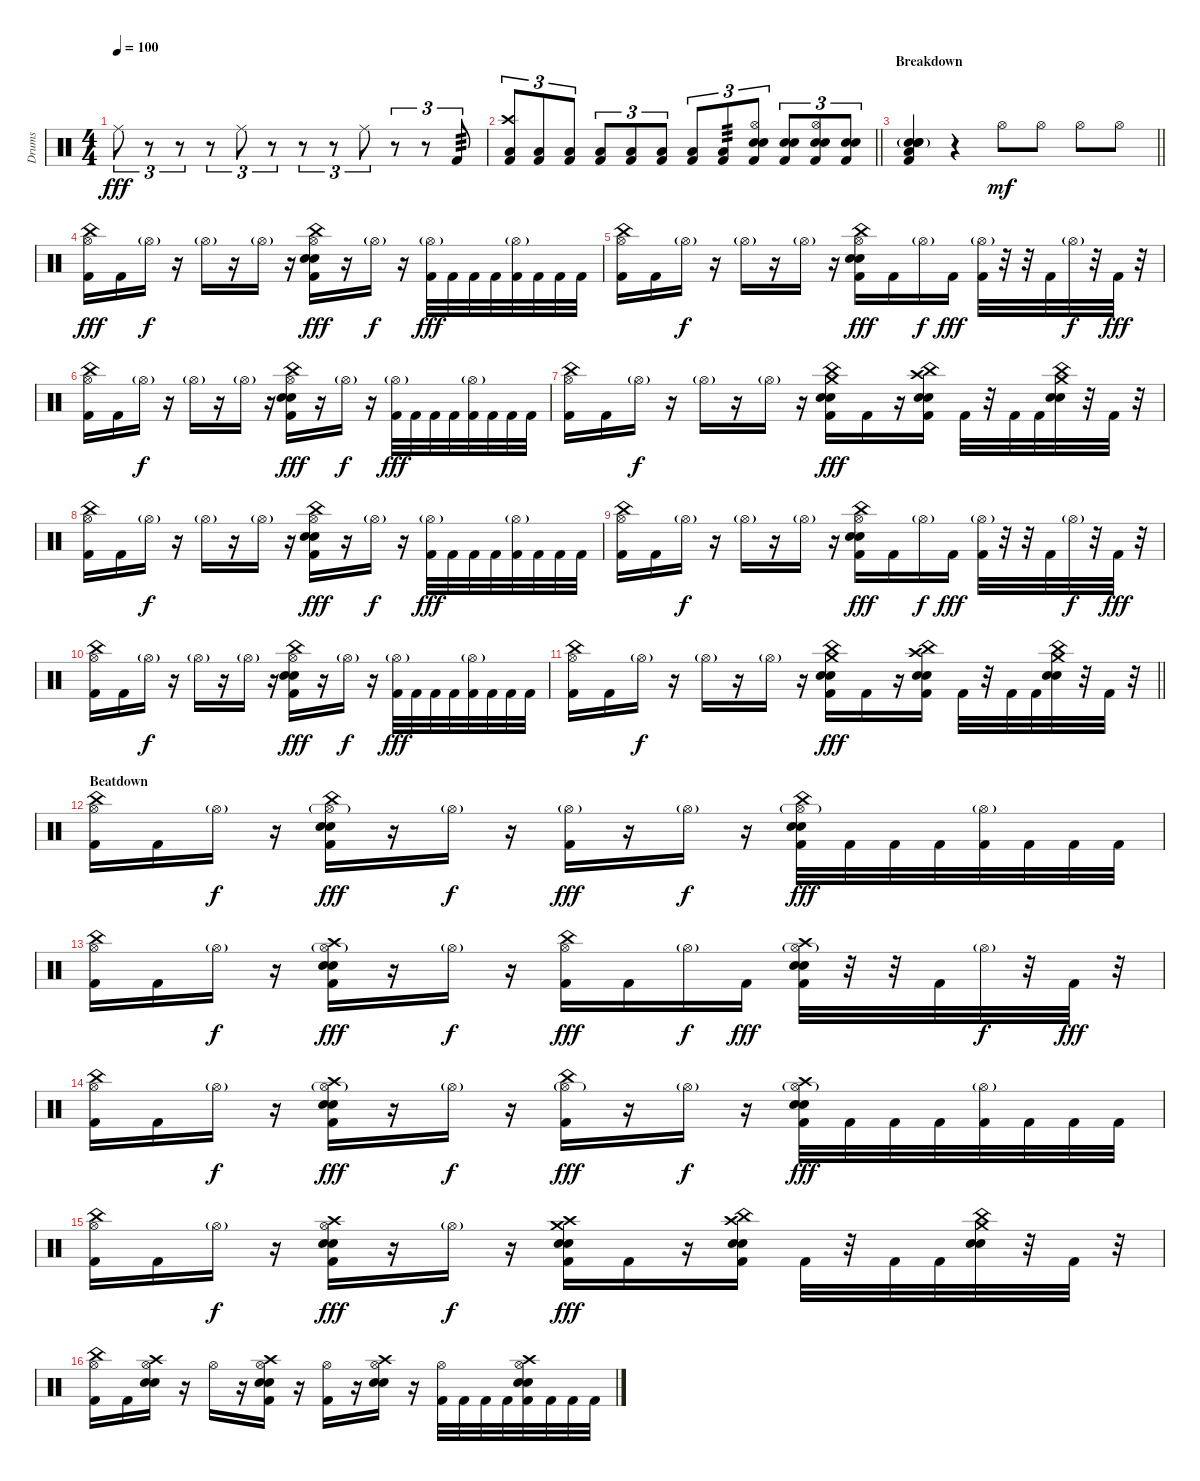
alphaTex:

\track ("Drums" "Drums") {instrument percussion}
\staff {score}
\articulation defaults
\ts (4 4)
\tempo 100
\clef neutral
\ks c "Ride (middle)".8{tu (3 2) dy fff}
r.8{tu (3 2)} r.8{tu (3 2)} r.8{tu (3 2)} "Ride (middle)".8{tu (3 2)} r.8{tu (3 2)} r.8{tu (3 2)} r.8{tu (3 2)} "Ride (middle)".8{tu (3 2)} r.8{tu (3 2)} r.8{tu (3 2)} "Kick (hit) 2".8{tu (3 2) tp 3} |
\barLineRight lightlight
("Crash high (hit)" "Low Floor Tom (hit)" "Kick (hit) 2").8{tu (3 2)} ("Low Floor Tom (hit)" "Kick (hit) 2").8{tu (3 2)} ("Low Floor Tom (hit)" "Kick (hit) 2").8{tu (3 2)} ("Low Floor Tom (hit)" "Kick (hit) 2").8{tu (3 2)} ("Low Floor Tom (hit)" "Kick (hit) 2").8{tu (3 2)} ("Low Floor Tom (hit)" "Kick (hit) 2").8{tu (3 2)} ("Low Floor Tom (hit)" "Kick (hit) 2").8{tu (3 2)} ("Low Floor Tom (hit)" "Kick (hit) 2").8{tu (3 2) tp 3} ("Hi-Hat (open)" "Electric Snare (hit)" "Snare (hit) 2" "Kick (hit) 2").8{tu (3 2)} ("Electric Snare (hit)" "Snare (hit) 2" "Kick (hit) 2").8{tu (3 2)} ("Hi-Hat (open)" "Electric Snare (hit)" "Snare (hit) 2" "Kick (hit) 2").8{tu (3 2)} ("Electric Snare (hit)" "Snare (hit) 2" "Kick (hit) 2").8{tu (3 2)} |
\section ("" "Breakdown")
\barLineRight lightlight
("Snare (hit) 2" "Electric Snare (hit)" "Hand Clap (hit)"{g} "Low Floor Tom (hit)" "Kick (hit) 2").4 r.4 "Hi-Hat (open)".8{dy mf} "Hi-Hat (open)".8 "Hi-Hat (open)".8 "Hi-Hat (open)".8 |
("Hi-Hat (open)" "China (hit)" "Kick (hit) 2").16{dy fff} "Kick (hit) 2".16 "Hi-Hat (open)"{g}.16{dy f} r.16 "Hi-Hat (open)"{g}.16 r.16 "Hi-Hat (open)"{g}.16 r.16 ("Hi-Hat (open)" "China (hit)" "Snare (hit) 2" "Electric Snare (hit)" "Kick (hit) 2").16{dy fff} r.16 "Hi-Hat (open)"{g}.16{dy f} r.16 ("Hi-Hat (open)"{g} "Kick (hit) 2").32{dy fff} "Kick (hit) 2".32 "Kick (hit) 2".32 "Kick (hit) 2".32 ("Hi-Hat (open)"{g} "Kick (hit) 2").32 "Kick (hit) 2".32 "Kick (hit) 2".32 "Kick (hit) 2".32 |
("Hi-Hat (open)" "China (hit)" "Kick (hit) 2").16 "Kick (hit) 2".16 "Hi-Hat (open)"{g}.16{dy f} r.16 "Hi-Hat (open)"{g}.16 r.16 "Hi-Hat (open)"{g}.16 r.16 ("Hi-Hat (open)" "China (hit)" "Snare (hit) 2" "Electric Snare (hit)" "Kick (hit) 2").16{dy fff} "Kick (hit) 2".16 "Hi-Hat (open)"{g}.16{dy f} "Kick (hit) 2".16{dy fff} ("Hi-Hat (open)"{g} "Kick (hit) 2").32 r.32 r.32 "Kick (hit) 2".32 "Hi-Hat (open)"{g}.32{dy f} r.32 "Kick (hit) 2".32{dy fff} r.32 |
("Hi-Hat (open)" "China (hit)" "Kick (hit) 2").16 "Kick (hit) 2".16 "Hi-Hat (open)"{g}.16{dy f} r.16 "Hi-Hat (open)"{g}.16 r.16 "Hi-Hat (open)"{g}.16 r.16 ("Hi-Hat (open)" "China (hit)" "Snare (hit) 2" "Electric Snare (hit)" "Kick (hit) 2").16{dy fff} r.16 "Hi-Hat (open)"{g}.16{dy f} r.16 ("Hi-Hat (open)"{g} "Kick (hit) 2").32{dy fff} "Kick (hit) 2".32 "Kick (hit) 2".32 "Kick (hit) 2".32 ("Hi-Hat (open)"{g} "Kick (hit) 2").32 "Kick (hit) 2".32 "Kick (hit) 2".32 "Kick (hit) 2".32 |
("Hi-Hat (open)" "China (hit)" "Kick (hit) 2").16 "Kick (hit) 2".16 "Hi-Hat (open)"{g}.16{dy f} r.16 "Hi-Hat (open)"{g}.16 r.16 "Hi-Hat (open)"{g}.16 r.16 ("Crash medium (hit)" "China (hit)" "Snare (hit) 2" "Electric Snare (hit)" "Kick (hit) 2").16{dy fff} "Kick (hit) 2".16 r.16 ("Crash high (hit)" "China (hit)" "Snare (hit) 2" "Electric Snare (hit)" "Kick (hit) 2").16 "Kick (hit) 2".32 r.32 "Kick (hit) 2".32 "Kick (hit) 2".32 ("Crash medium (hit)" "China (hit)" "Snare (hit) 2" "Electric Snare (hit)").32 r.32 "Kick (hit) 2".32 r.32 |
("Hi-Hat (open)" "China (hit)" "Kick (hit) 2").16 "Kick (hit) 2".16 "Hi-Hat (open)"{g}.16{dy f} r.16 "Hi-Hat (open)"{g}.16 r.16 "Hi-Hat (open)"{g}.16 r.16 ("Hi-Hat (open)" "China (hit)" "Snare (hit) 2" "Electric Snare (hit)" "Kick (hit) 2").16{dy fff} r.16 "Hi-Hat (open)"{g}.16{dy f} r.16 ("Hi-Hat (open)"{g} "Kick (hit) 2").32{dy fff} "Kick (hit) 2".32 "Kick (hit) 2".32 "Kick (hit) 2".32 ("Hi-Hat (open)"{g} "Kick (hit) 2").32 "Kick (hit) 2".32 "Kick (hit) 2".32 "Kick (hit) 2".32 |
("Hi-Hat (open)" "China (hit)" "Kick (hit) 2").16 "Kick (hit) 2".16 "Hi-Hat (open)"{g}.16{dy f} r.16 "Hi-Hat (open)"{g}.16 r.16 "Hi-Hat (open)"{g}.16 r.16 ("Hi-Hat (open)" "China (hit)" "Snare (hit) 2" "Electric Snare (hit)" "Kick (hit) 2").16{dy fff} "Kick (hit) 2".16 "Hi-Hat (open)"{g}.16{dy f} "Kick (hit) 2".16{dy fff} ("Hi-Hat (open)"{g} "Kick (hit) 2").32 r.32 r.32 "Kick (hit) 2".32 "Hi-Hat (open)"{g}.32{dy f} r.32 "Kick (hit) 2".32{dy fff} r.32 |
("Hi-Hat (open)" "China (hit)" "Kick (hit) 2").16 "Kick (hit) 2".16 "Hi-Hat (open)"{g}.16{dy f} r.16 "Hi-Hat (open)"{g}.16 r.16 "Hi-Hat (open)"{g}.16 r.16 ("Hi-Hat (open)" "China (hit)" "Snare (hit) 2" "Electric Snare (hit)" "Kick (hit) 2").16{dy fff} r.16 "Hi-Hat (open)"{g}.16{dy f} r.16 ("Hi-Hat (open)"{g} "Kick (hit) 2").32{dy fff} "Kick (hit) 2".32 "Kick (hit) 2".32 "Kick (hit) 2".32 ("Hi-Hat (open)"{g} "Kick (hit) 2").32 "Kick (hit) 2".32 "Kick (hit) 2".32 "Kick (hit) 2".32 |
\barLineRight lightlight
("Hi-Hat (open)" "China (hit)" "Kick (hit) 2").16 "Kick (hit) 2".16 "Hi-Hat (open)"{g}.16{dy f} r.16 "Hi-Hat (open)"{g}.16 r.16 "Hi-Hat (open)"{g}.16 r.16 ("Crash medium (hit)" "China (hit)" "Snare (hit) 2" "Electric Snare (hit)" "Kick (hit) 2").16{dy fff} "Kick (hit) 2".16 r.16 ("Crash high (hit)" "China (hit)" "Snare (hit) 2" "Electric Snare (hit)" "Kick (hit) 2").16 "Kick (hit) 2".32 r.32 "Kick (hit) 2".32 "Kick (hit) 2".32 ("Crash medium (hit)" "China (hit)" "Snare (hit) 2" "Electric Snare (hit)").32 r.32 "Kick (hit) 2".32 r.32 |
\section ("" "Beatdown")
("Hi-Hat (open)" "China (hit)" "Kick (hit) 2").16 "Kick (hit) 2".16 "Hi-Hat (open)"{g}.16{dy f} r.16 ("Hi-Hat (open)"{g} "China (hit)" "Snare (hit) 2" "Electric Snare (hit)" "Kick (hit) 2").16{dy fff} r.16 "Hi-Hat (open)"{g}.16{dy f} r.16 ("Hi-Hat (open)"{g} "Kick (hit) 2").16{dy fff} r.16 "Hi-Hat (open)"{g}.16{dy f} r.16 ("Hi-Hat (open)"{g} "China (hit)" "Snare (hit) 2" "Electric Snare (hit)" "Kick (hit) 2").32{dy fff} "Kick (hit) 2".32 "Kick (hit) 2".32 "Kick (hit) 2".32 ("Hi-Hat (open)"{g} "Kick (hit) 2").32 "Kick (hit) 2".32 "Kick (hit) 2".32 "Kick (hit) 2".32 |
("Hi-Hat (open)" "China (hit)" "Kick (hit) 2").16 "Kick (hit) 2".16 "Hi-Hat (open)"{g}.16{dy f} r.16 ("Hi-Hat (open)"{g} "Crash high (hit)" "Snare (hit) 2" "Electric Snare (hit)" "Kick (hit) 2").16{dy fff} r.16 "Hi-Hat (open)"{g}.16{dy f} r.16 ("Hi-Hat (open)" "China (hit)" "Kick (hit) 2").16{dy fff} "Kick (hit) 2".16 "Hi-Hat (open)"{g}.16{dy f} "Kick (hit) 2".16{dy fff} ("Hi-Hat (open)"{g} "Crash high (hit)" "Snare (hit) 2" "Electric Snare (hit)" "Kick (hit) 2").32 r.32 r.32 "Kick (hit) 2".32 "Hi-Hat (open)"{g}.32{dy f} r.32 "Kick (hit) 2".32{dy fff} r.32 |
("Hi-Hat (open)" "China (hit)" "Kick (hit) 2").16 "Kick (hit) 2".16 "Hi-Hat (open)"{g}.16{dy f} r.16 ("Hi-Hat (open)"{g} "Crash high (hit)" "Snare (hit) 2" "Electric Snare (hit)" "Kick (hit) 2").16{dy fff} r.16 "Hi-Hat (open)"{g}.16{dy f} r.16 ("Hi-Hat (open)"{g} "China (hit)" "Kick (hit) 2").16{dy fff} r.16 "Hi-Hat (open)"{g}.16{dy f} r.16 ("Hi-Hat (open)"{g} "Crash high (hit)" "Snare (hit) 2" "Electric Snare (hit)" "Kick (hit) 2").32{dy fff} "Kick (hit) 2".32 "Kick (hit) 2".32 "Kick (hit) 2".32 ("Hi-Hat (open)"{g} "Kick (hit) 2").32 "Kick (hit) 2".32 "Kick (hit) 2".32 "Kick (hit) 2".32 |
("Hi-Hat (open)" "China (hit)" "Kick (hit) 2").16 "Kick (hit) 2".16 "Hi-Hat (open)"{g}.16{dy f} r.16 ("Hi-Hat (open)" "Crash high (hit)" "Snare (hit) 2" "Electric Snare (hit)" "Kick (hit) 2").16{dy fff} r.16 "Hi-Hat (open)"{g}.16{dy f} r.16 ("Crash medium (hit)" "Crash high (hit)" "Snare (hit) 2" "Electric Snare (hit)" "Kick (hit) 2").16{dy fff} "Kick (hit) 2".16 r.16 ("Crash high (hit)" "China (hit)" "Snare (hit) 2" "Electric Snare (hit)" "Kick (hit) 2").16 "Kick (hit) 2".32 r.32 "Kick (hit) 2".32 "Kick (hit) 2".32 ("Crash medium (hit)" "China (hit)" "Snare (hit) 2" "Electric Snare (hit)").32 r.32 "Kick (hit) 2".32 r.32 |
("Hi-Hat (open)" "China (hit)" "Kick (hit) 2").16 "Kick (hit) 2".16 ("Hi-Hat (open)" "Crash high (hit)" "Snare (hit) 2" "Electric Snare (hit)").16 r.16 "Hi-Hat (open)".16 r.16 ("Hi-Hat (open)" "Crash high (hit)" "Snare (hit) 2" "Electric Snare (hit)" "Kick (hit) 2").16 r.16 ("Hi-Hat (open)" "Kick (hit) 2").16 r.16 ("Hi-Hat (open)" "Crash high (hit)" "Snare (hit) 2" "Electric Snare (hit)").16 r.16 ("Hi-Hat (open)" "Kick (hit) 2").32 "Kick (hit) 2".32 "Kick (hit) 2".32 "Kick (hit) 2".32 ("Hi-Hat (open)" "Crash high (hit)" "Snare (hit) 2" "Electric Snare (hit)" "Kick (hit) 2").32 "Kick (hit) 2".32 "Kick (hit) 2".32 "Kick (hit) 2".32
